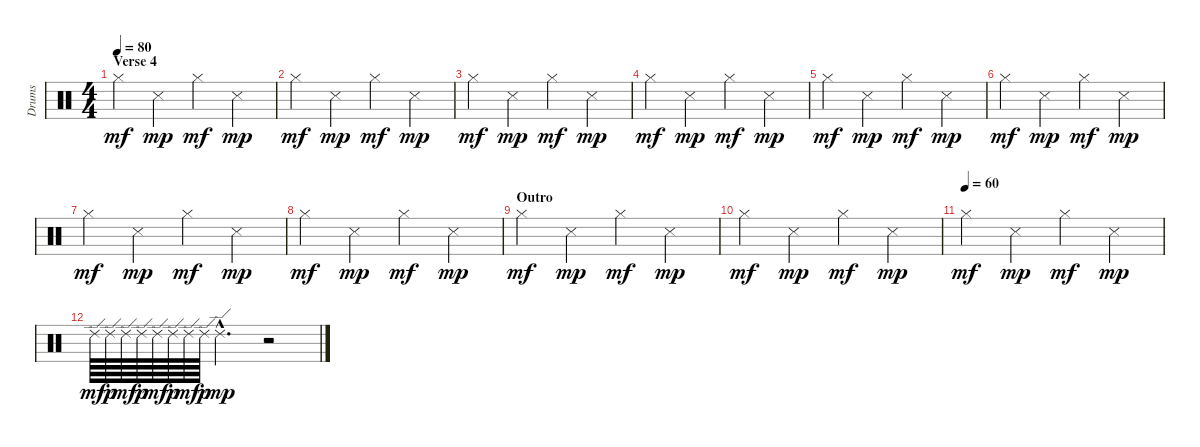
\track ("Drums" "Drums") {instrument percussion}
\staff {score}
\articulation defaults
\ts (4 4)
\section ("" "Verse 4")
\tempo 80
\clef neutral
\ks c "Hi-Hat (closed)".4{dy mf} "Snare (side stick) 3".4{dy mp} "Hi-Hat (closed)".4{dy mf} "Snare (side stick) 3".4{dy mp}
|
"Hi-Hat (closed)".4{dy mf} "Snare (side stick) 3".4{dy mp} "Hi-Hat (closed)".4{dy mf} "Snare (side stick) 3".4{dy mp} |
"Hi-Hat (closed)".4{dy mf} "Snare (side stick) 3".4{dy mp} "Hi-Hat (closed)".4{dy mf} "Snare (side stick) 3".4{dy mp} |
"Hi-Hat (closed)".4{dy mf} "Snare (side stick) 3".4{dy mp} "Hi-Hat (closed)".4{dy mf} "Snare (side stick) 3".4{dy mp} |
"Hi-Hat (closed)".4{dy mf} "Snare (side stick) 3".4{dy mp} "Hi-Hat (closed)".4{dy mf} "Snare (side stick) 3".4{dy mp} |
"Hi-Hat (closed)".4{dy mf} "Snare (side stick) 3".4{dy mp} "Hi-Hat (closed)".4{dy mf} "Snare (side stick) 3".4{dy mp} |
"Hi-Hat (closed)".4{dy mf} "Snare (side stick) 3".4{dy mp} "Hi-Hat (closed)".4{dy mf} "Snare (side stick) 3".4{dy mp} |
"Hi-Hat (closed)".4{dy mf} "Snare (side stick) 3".4{dy mp} "Hi-Hat (closed)".4{dy mf} "Snare (side stick) 3".4{dy mp} |
\section ("" "Outro")
"Hi-Hat (closed)".4{dy mf} "Snare (side stick) 3".4{dy mp} "Hi-Hat (closed)".4{dy mf} "Snare (side stick) 3".4{dy mp} |
"Hi-Hat (closed)".4{dy mf} "Snare (side stick) 3".4{dy mp} "Hi-Hat (closed)".4{dy mf} "Snare (side stick) 3".4{dy mp} |
\tempo (60)
"Hi-Hat (closed)".4{dy mf} "Snare (side stick) 3".4{dy mp} "Hi-Hat (closed)".4{dy mf} "Snare (side stick) 3".4{dy mp} |
"Ride (edge) 2".64{dy mf} "Ride (edge) 2".64{dy p} "Ride (edge) 2".64{dy mf} "Ride (edge) 2".64{dy p} "Ride (edge) 2".64{dy mf} "Ride (edge) 2".64{dy p} "Ride (edge) 2".64{dy mf} "Ride (edge) 2".64{dy p} "Ride (edge) 2"{hac}.4{d dy mp} r.2
